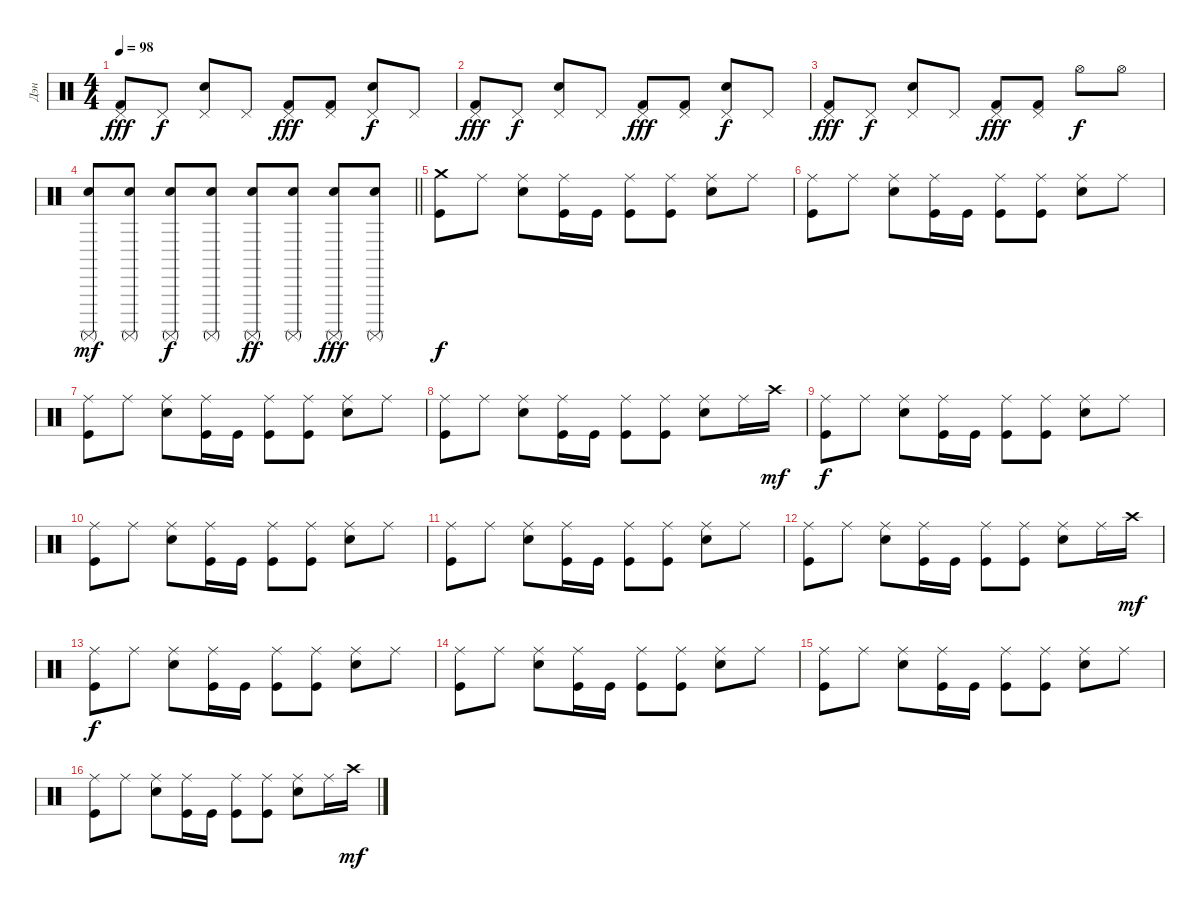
\track ("Дэн" "Дэн") {instrument percussion}
\staff {score}
\articulation defaults
\ts (4 4)
\tempo 98
\clef neutral
\ks c
("Kick (hit) 2" "Pedal Hi-Hat (hit)").8{dy fff} "Pedal Hi-Hat (hit)".8{dy f} ("Electric Snare (hit)" "Pedal Hi-Hat (hit)").8 "Pedal Hi-Hat (hit)".8 ("Kick (hit) 2" "Pedal Hi-Hat (hit)").8{dy fff} ("Kick (hit) 2" "Pedal Hi-Hat (hit)").8 ("Electric Snare (hit)" "Pedal Hi-Hat (hit)").8{dy f} "Pedal Hi-Hat (hit)".8 |
("Kick (hit) 2" "Pedal Hi-Hat (hit)").8{dy fff} "Pedal Hi-Hat (hit)".8{dy f} ("Electric Snare (hit)" "Pedal Hi-Hat (hit)").8 "Pedal Hi-Hat (hit)".8 ("Kick (hit) 2" "Pedal Hi-Hat (hit)").8{dy fff} ("Kick (hit) 2" "Pedal Hi-Hat (hit)").8 ("Electric Snare (hit)" "Pedal Hi-Hat (hit)").8{dy f} "Pedal Hi-Hat (hit)".8 |
("Kick (hit) 2" "Pedal Hi-Hat (hit)").8{dy fff} "Pedal Hi-Hat (hit)".8{dy f} ("Electric Snare (hit)" "Pedal Hi-Hat (hit)").8 "Pedal Hi-Hat (hit)".8 ("Kick (hit) 2" "Pedal Hi-Hat (hit)").8{dy fff} ("Kick (hit) 2" "Pedal Hi-Hat (hit)").8 "Hi-Hat (open)".8{dy f} "Hi-Hat (open)".8 |
\barLineRight lightlight
("Electric Snare (hit)" "Surdo (mute)").8{dy mf} ("Electric Snare (hit)" "Surdo (mute)").8 ("Electric Snare (hit)" "Surdo (mute)").8{dy f} ("Electric Snare (hit)" "Surdo (mute)").8 ("Electric Snare (hit)" "Surdo (mute)").8{dy ff} ("Electric Snare (hit)" "Surdo (mute)").8 ("Electric Snare (hit)" "Surdo (mute)").8{dy fff} ("Electric Snare (hit)" "Surdo (mute)").8 |
("Kick (hit)" "Crash medium (hit)").8{dy f} "Ride (middle)".8 ("Electric Snare (hit)" "Ride (middle)").8 ("Kick (hit)" "Ride (middle)").16 "Kick (hit)".16 ("Kick (hit)" "Ride (middle)").8 ("Kick (hit)" "Ride (middle)").8 ("Electric Snare (hit)" "Ride (middle)").8 "Ride (middle)".8 |
("Kick (hit)" "Ride (middle)").8 "Ride (middle)".8 ("Electric Snare (hit)" "Ride (middle)").8 ("Kick (hit)" "Ride (middle)").16 "Kick (hit)".16 ("Kick (hit)" "Ride (middle)").8 ("Kick (hit)" "Ride (middle)").8 ("Electric Snare (hit)" "Ride (middle)").8 "Ride (middle)".8 |
("Kick (hit)" "Ride (middle)").8 "Ride (middle)".8 ("Electric Snare (hit)" "Ride (middle)").8 ("Kick (hit)" "Ride (middle)").16 "Kick (hit)".16 ("Kick (hit)" "Ride (middle)").8 ("Kick (hit)" "Ride (middle)").8 ("Electric Snare (hit)" "Ride (middle)").8 "Ride (middle)".8 |
("Kick (hit)" "Ride (middle)").8 "Ride (middle)".8 ("Electric Snare (hit)" "Ride (middle)").8 ("Kick (hit)" "Ride (middle)").16 "Kick (hit)".16 ("Kick (hit)" "Ride (middle)").8 ("Kick (hit)" "Ride (middle)").8 ("Electric Snare (hit)" "Ride (middle)").8 "Ride (middle)".16 "Crash high (hit)".16{dy mf} |
("Kick (hit)" "Ride (middle)").8{dy f} "Ride (middle)".8 ("Electric Snare (hit)" "Ride (middle)").8 ("Kick (hit)" "Ride (middle)").16 "Kick (hit)".16 ("Kick (hit)" "Ride (middle)").8 ("Kick (hit)" "Ride (middle)").8 ("Electric Snare (hit)" "Ride (middle)").8 "Ride (middle)".8 |
("Kick (hit)" "Ride (middle)").8 "Ride (middle)".8 ("Electric Snare (hit)" "Ride (middle)").8 ("Kick (hit)" "Ride (middle)").16 "Kick (hit)".16 ("Kick (hit)" "Ride (middle)").8 ("Kick (hit)" "Ride (middle)").8 ("Electric Snare (hit)" "Ride (middle)").8 "Ride (middle)".8 |
("Kick (hit)" "Ride (middle)").8 "Ride (middle)".8 ("Electric Snare (hit)" "Ride (middle)").8 ("Kick (hit)" "Ride (middle)").16 "Kick (hit)".16 ("Kick (hit)" "Ride (middle)").8 ("Kick (hit)" "Ride (middle)").8 ("Electric Snare (hit)" "Ride (middle)").8 "Ride (middle)".8 |
("Kick (hit)" "Ride (middle)").8 "Ride (middle)".8 ("Electric Snare (hit)" "Ride (middle)").8 ("Kick (hit)" "Ride (middle)").16 "Kick (hit)".16 ("Kick (hit)" "Ride (middle)").8 ("Kick (hit)" "Ride (middle)").8 ("Electric Snare (hit)" "Ride (middle)").8 "Ride (middle)".16 "Crash high (hit)".16{dy mf} |
("Kick (hit)" "Ride (middle)").8{dy f} "Ride (middle)".8 ("Electric Snare (hit)" "Ride (middle)").8 ("Kick (hit)" "Ride (middle)").16 "Kick (hit)".16 ("Kick (hit)" "Ride (middle)").8 ("Kick (hit)" "Ride (middle)").8 ("Electric Snare (hit)" "Ride (middle)").8 "Ride (middle)".8 |
("Kick (hit)" "Ride (middle)").8 "Ride (middle)".8 ("Electric Snare (hit)" "Ride (middle)").8 ("Kick (hit)" "Ride (middle)").16 "Kick (hit)".16 ("Kick (hit)" "Ride (middle)").8 ("Kick (hit)" "Ride (middle)").8 ("Electric Snare (hit)" "Ride (middle)").8 "Ride (middle)".8 |
("Kick (hit)" "Ride (middle)").8 "Ride (middle)".8 ("Electric Snare (hit)" "Ride (middle)").8 ("Kick (hit)" "Ride (middle)").16 "Kick (hit)".16 ("Kick (hit)" "Ride (middle)").8 ("Kick (hit)" "Ride (middle)").8 ("Electric Snare (hit)" "Ride (middle)").8 "Ride (middle)".8 |
("Kick (hit)" "Ride (middle)").8 "Ride (middle)".8 ("Electric Snare (hit)" "Ride (middle)").8 ("Kick (hit)" "Ride (middle)").16 "Kick (hit)".16 ("Kick (hit)" "Ride (middle)").8 ("Kick (hit)" "Ride (middle)").8 ("Electric Snare (hit)" "Ride (middle)").8 "Ride (middle)".16 "Crash high (hit)".16{dy mf}
